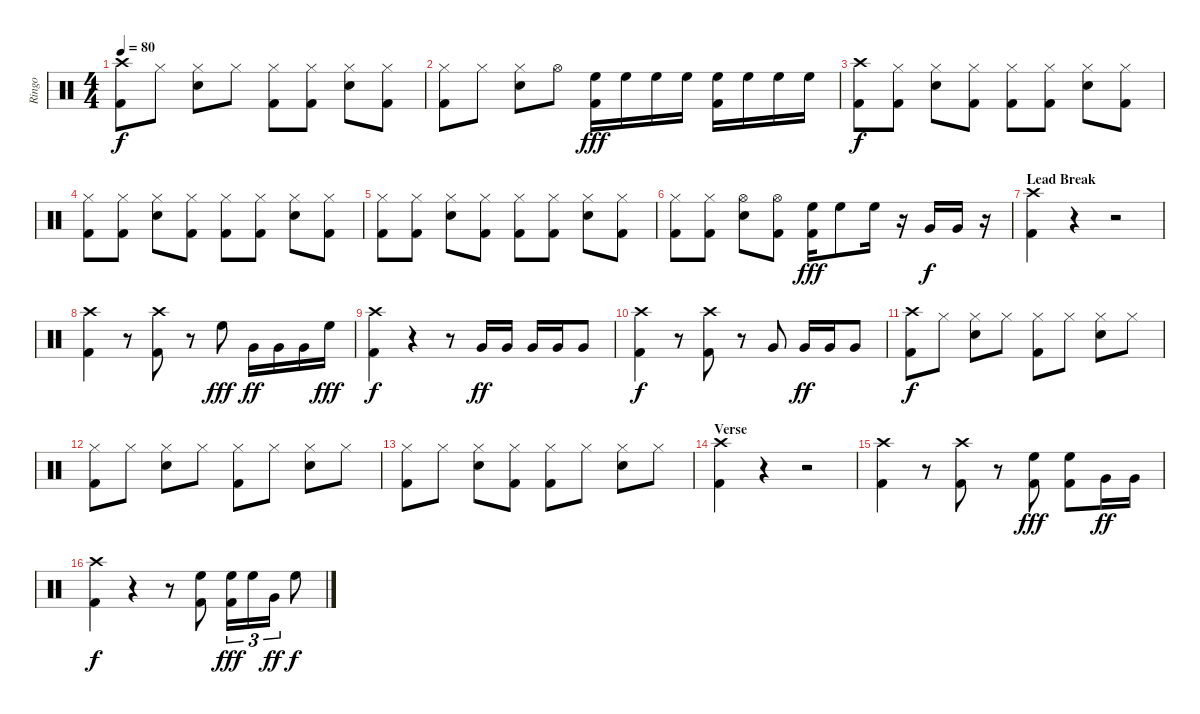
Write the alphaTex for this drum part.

\track ("Ringo" "Ringo") {instrument percussion}
\staff {score}
\articulation defaults
\ts (4 4)
\tempo 80
\clef neutral
\ks c
("Crash high (hit)" "Kick (hit) 2").8{dy f} "Hi-Hat (closed)".8 ("Hi-Hat (closed)" "Snare (hit) 2").8 "Hi-Hat (closed)".8 ("Hi-Hat (closed)" "Kick (hit) 2").8 ("Hi-Hat (closed)" "Kick (hit) 2").8 ("Hi-Hat (closed)" "Snare (hit) 2").8 ("Hi-Hat (closed)" "Kick (hit) 2").8 |
("Hi-Hat (closed)" "Kick (hit) 2").8 "Hi-Hat (closed)".8 ("Hi-Hat (closed)" "Snare (hit) 2").8 "Hi-Hat (open)".8 ("High Floor Tom (hit)" "Kick (hit) 2").16{dy fff} "High Floor Tom (hit)".16 "High Floor Tom (hit)".16 "High Floor Tom (hit)".16 ("High Floor Tom (hit)" "Kick (hit) 2").16 "High Floor Tom (hit)".16 "High Floor Tom (hit)".16 "High Floor Tom (hit)".16 |
("Crash high (hit)" "Kick (hit) 2").8{dy f} ("Hi-Hat (closed)" "Kick (hit) 2").8 ("Hi-Hat (closed)" "Snare (hit) 2").8 ("Hi-Hat (closed)" "Kick (hit) 2").8 ("Hi-Hat (closed)" "Kick (hit) 2").8 ("Hi-Hat (closed)" "Kick (hit) 2").8 ("Hi-Hat (closed)" "Snare (hit) 2").8 ("Hi-Hat (closed)" "Kick (hit) 2").8 |
("Hi-Hat (closed)" "Kick (hit) 2").8 ("Hi-Hat (closed)" "Kick (hit) 2").8 ("Hi-Hat (closed)" "Snare (hit) 2").8 ("Hi-Hat (closed)" "Kick (hit) 2").8 ("Hi-Hat (closed)" "Kick (hit) 2").8 ("Hi-Hat (closed)" "Kick (hit) 2").8 ("Hi-Hat (closed)" "Snare (hit) 2").8 ("Hi-Hat (closed)" "Kick (hit) 2").8 |
("Hi-Hat (closed)" "Kick (hit) 2").8 ("Hi-Hat (closed)" "Kick (hit) 2").8 ("Hi-Hat (closed)" "Snare (hit) 2").8 ("Hi-Hat (closed)" "Kick (hit) 2").8 ("Hi-Hat (closed)" "Kick (hit) 2").8 ("Hi-Hat (closed)" "Kick (hit) 2").8 ("Hi-Hat (closed)" "Snare (hit) 2").8 ("Hi-Hat (closed)" "Kick (hit) 2").8 |
("Hi-Hat (closed)" "Kick (hit) 2").8 ("Hi-Hat (closed)" "Kick (hit) 2").8 ("Hi-Hat (open)" "Snare (hit) 2").8 ("Hi-Hat (open)" "Kick (hit) 2").8 ("High Floor Tom (hit)" "Kick (hit) 2").16{dy fff} "High Floor Tom (hit)".8 "High Floor Tom (hit)".16 r.16 "Very Low Tom (hit)".16{dy f} "Very Low Tom (hit)".16 r.16 |
\section ("" "Lead Break")
("Crash high (hit)" "Kick (hit) 2").4 r.4 r.2 |
("Crash high (hit)" "Kick (hit) 2").4 r.8 ("Crash high (hit)" "Kick (hit) 2").8 r.8 "High Floor Tom (hit)".8{dy fff} "Very Low Tom (hit)".16{dy ff} "Very Low Tom (hit)".16 "Very Low Tom (hit)".16 "High Floor Tom (hit)".16{dy fff} |
("Crash high (hit)" "Kick (hit) 2").4{dy f} r.4 r.8 "Very Low Tom (hit)".16{dy ff} "Very Low Tom (hit)".16 "Very Low Tom (hit)".16 "Very Low Tom (hit)".16 "Very Low Tom (hit)".8 |
("Crash high (hit)" "Kick (hit) 2").4{dy f} r.8 ("Crash high (hit)" "Kick (hit) 2").8 r.8 "Very Low Tom (hit)".8 "Very Low Tom (hit)".16{dy ff} "Very Low Tom (hit)".16 "Very Low Tom (hit)".8 |
("Crash high (hit)" "Kick (hit) 2").8{dy f} "Hi-Hat (closed)".8 ("Hi-Hat (closed)" "Snare (hit) 2").8 "Hi-Hat (closed)".8 ("Hi-Hat (closed)" "Kick (hit) 2").8 "Hi-Hat (closed)".8 ("Hi-Hat (closed)" "Snare (hit) 2").8 "Hi-Hat (closed)".8 |
("Hi-Hat (closed)" "Kick (hit) 2").8 "Hi-Hat (closed)".8 ("Hi-Hat (closed)" "Snare (hit) 2").8 "Hi-Hat (closed)".8 ("Hi-Hat (closed)" "Kick (hit) 2").8 "Hi-Hat (closed)".8 ("Hi-Hat (closed)" "Snare (hit) 2").8 "Hi-Hat (closed)".8 |
("Hi-Hat (closed)" "Kick (hit) 2").8 "Hi-Hat (closed)".8 ("Hi-Hat (closed)" "Snare (hit) 2").8 ("Hi-Hat (closed)" "Kick (hit) 2").8 ("Hi-Hat (closed)" "Kick (hit) 2").8 "Hi-Hat (closed)".8 ("Hi-Hat (closed)" "Snare (hit) 2").8 "Hi-Hat (closed)".8 |
\section ("" "Verse")
("Crash high (hit)" "Kick (hit) 2").4 r.4 r.2 |
("Crash high (hit)" "Kick (hit) 2").4 r.8 ("Crash high (hit)" "Kick (hit) 2").8 r.8 ("High Floor Tom (hit)" "Kick (hit) 2").8{dy fff} ("High Floor Tom (hit)" "Kick (hit) 2").8 "Very Low Tom (hit)".16{dy ff} "Very Low Tom (hit)".16 |
("Crash high (hit)" "Kick (hit) 2").4{dy f} r.4 r.8 ("High Floor Tom (hit)" "Kick (hit) 2").8 ("High Floor Tom (hit)" "Kick (hit) 2").16{tu (3 2) dy fff} "High Floor Tom (hit)".16{tu (3 2)} "Very Low Tom (hit)".16{tu (3 2) dy ff} "High Floor Tom (hit)".8{dy f}
